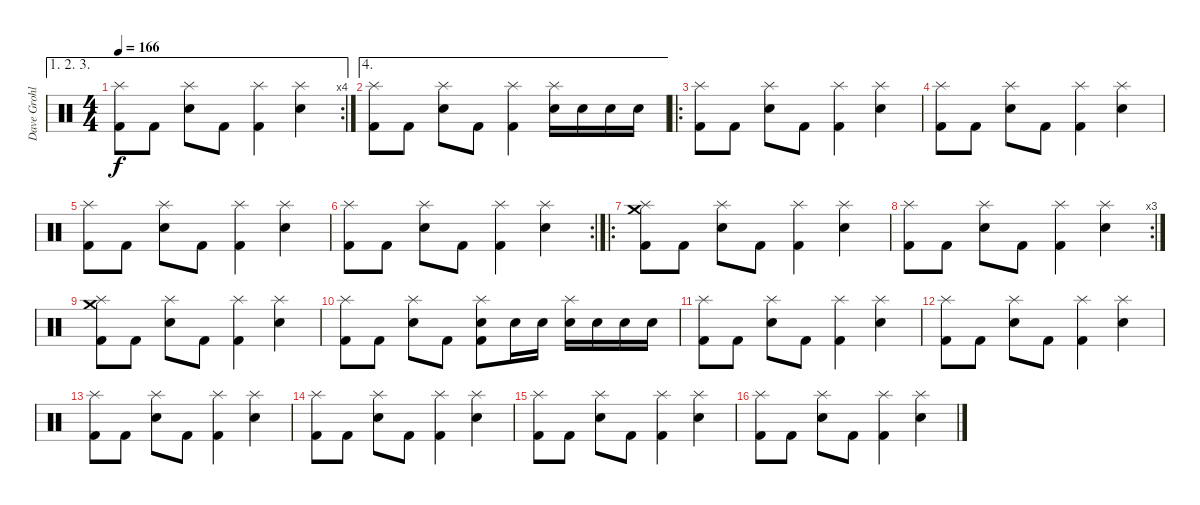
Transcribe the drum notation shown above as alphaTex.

\track ("Dave Grohl" "Dave Grohl") {instrument percussion}
\staff {score}
\articulation defaults
\ae (1 2 3)
\rc 4
\ts (4 4)
\tempo 166
\clef neutral
\ks c
("Splash (hit)" "Kick (hit) 2").8{dy f} "Kick (hit) 2".8 ("Splash (hit)" "Snare (hit) 2").8 "Kick (hit) 2".8 ("Splash (hit)" "Kick (hit) 2").4 ("Splash (hit)" "Snare (hit) 2").4 |
\ae 4
("Splash (hit)" "Kick (hit) 2").8 "Kick (hit) 2".8 ("Splash (hit)" "Snare (hit) 2").8 "Kick (hit) 2".8 ("Splash (hit)" "Kick (hit) 2").4 ("Splash (hit)" "Snare (hit) 2").16 "Snare (hit) 2".16 "Snare (hit) 2".16 "Snare (hit) 2".16 |
\ro
("Splash (hit)" "Kick (hit) 2").8 "Kick (hit) 2".8 ("Splash (hit)" "Snare (hit) 2").8 "Kick (hit) 2".8 ("Splash (hit)" "Kick (hit) 2").4 ("Splash (hit)" "Snare (hit) 2").4 |
("Splash (hit)" "Kick (hit) 2").8 "Kick (hit) 2".8 ("Splash (hit)" "Snare (hit) 2").8 "Kick (hit) 2".8 ("Splash (hit)" "Kick (hit) 2").4 ("Splash (hit)" "Snare (hit) 2").4 |
("Splash (hit)" "Kick (hit) 2").8 "Kick (hit) 2".8 ("Splash (hit)" "Snare (hit) 2").8 "Kick (hit) 2".8 ("Splash (hit)" "Kick (hit) 2").4 ("Splash (hit)" "Snare (hit) 2").4 |
\rc 2
("Splash (hit)" "Kick (hit) 2").8 "Kick (hit) 2".8 ("Splash (hit)" "Snare (hit) 2").8 "Kick (hit) 2".8 ("Splash (hit)" "Kick (hit) 2").4 ("Splash (hit)" "Snare (hit) 2").4 |
\ro
("Splash (hit)" "Crash medium (hit)" "Kick (hit) 2").8 "Kick (hit) 2".8 ("Splash (hit)" "Snare (hit) 2").8 "Kick (hit) 2".8 ("Splash (hit)" "Kick (hit) 2").4 ("Splash (hit)" "Snare (hit) 2").4 |
\rc 3
("Splash (hit)" "Kick (hit) 2").8 "Kick (hit) 2".8 ("Splash (hit)" "Snare (hit) 2").8 "Kick (hit) 2".8 ("Splash (hit)" "Kick (hit) 2").4 ("Splash (hit)" "Snare (hit) 2").4 |
("Splash (hit)" "Crash medium (hit)" "Kick (hit) 2").8 "Kick (hit) 2".8 ("Splash (hit)" "Snare (hit) 2").8 "Kick (hit) 2".8 ("Splash (hit)" "Kick (hit) 2").4 ("Splash (hit)" "Snare (hit) 2").4 |
("Splash (hit)" "Kick (hit) 2").8 "Kick (hit) 2".8 ("Splash (hit)" "Snare (hit) 2").8 "Kick (hit) 2".8 ("Splash (hit)" "Snare (hit) 2" "Kick (hit) 2").8 "Snare (hit) 2".16 "Snare (hit) 2".16 ("Splash (hit)" "Snare (hit) 2").16 "Snare (hit) 2".16 "Snare (hit) 2".16 "Snare (hit) 2".16 |
("Splash (hit)" "Kick (hit) 2").8 "Kick (hit) 2".8 ("Splash (hit)" "Snare (hit) 2").8 "Kick (hit) 2".8 ("Splash (hit)" "Kick (hit) 2").4 ("Splash (hit)" "Snare (hit) 2").4 |
("Splash (hit)" "Kick (hit) 2").8 "Kick (hit) 2".8 ("Splash (hit)" "Snare (hit) 2").8 "Kick (hit) 2".8 ("Splash (hit)" "Kick (hit) 2").4 ("Splash (hit)" "Snare (hit) 2").4 |
("Splash (hit)" "Kick (hit) 2").8 "Kick (hit) 2".8 ("Splash (hit)" "Snare (hit) 2").8 "Kick (hit) 2".8 ("Splash (hit)" "Kick (hit) 2").4 ("Splash (hit)" "Snare (hit) 2").4 |
("Splash (hit)" "Kick (hit) 2").8 "Kick (hit) 2".8 ("Splash (hit)" "Snare (hit) 2").8 "Kick (hit) 2".8 ("Splash (hit)" "Kick (hit) 2").4 ("Splash (hit)" "Snare (hit) 2").4 |
("Splash (hit)" "Kick (hit) 2").8 "Kick (hit) 2".8 ("Splash (hit)" "Snare (hit) 2").8 "Kick (hit) 2".8 ("Splash (hit)" "Kick (hit) 2").4 ("Splash (hit)" "Snare (hit) 2").4 |
("Splash (hit)" "Kick (hit) 2").8 "Kick (hit) 2".8 ("Splash (hit)" "Snare (hit) 2").8 "Kick (hit) 2".8 ("Splash (hit)" "Kick (hit) 2").4 ("Splash (hit)" "Snare (hit) 2").4
